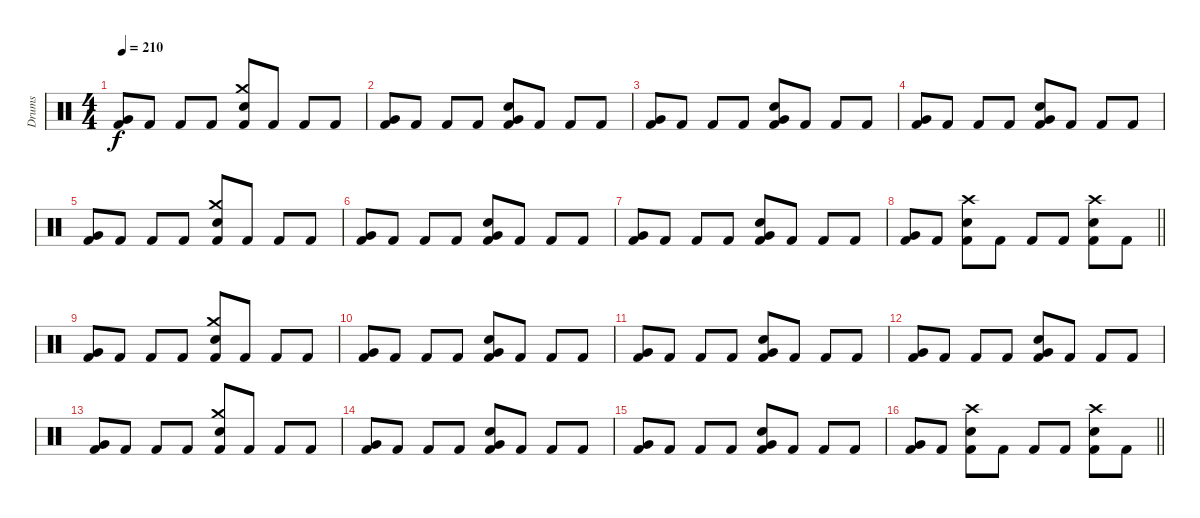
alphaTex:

\track ("Drums" "Drums") {instrument percussion}
\staff {score}
\articulation defaults
\ts (4 4)
\tempo 210
\clef neutral
\ks c
("Very Low Tom (hit)" "Kick (hit) 2").8{dy f} "Kick (hit) 2".8 "Kick (hit) 2".8 "Kick (hit) 2".8 ("Crash medium (hit)" "Snare (hit) 2" "Kick (hit) 2").8 "Kick (hit) 2".8 "Kick (hit) 2".8 "Kick (hit) 2".8 |
("Very Low Tom (hit)" "Kick (hit) 2").8 "Kick (hit) 2".8 "Kick (hit) 2".8 "Kick (hit) 2".8 ("Very Low Tom (hit)" "Snare (hit) 2" "Kick (hit) 2").8 "Kick (hit) 2".8 "Kick (hit) 2".8 "Kick (hit) 2".8 |
("Very Low Tom (hit)" "Kick (hit) 2").8 "Kick (hit) 2".8 "Kick (hit) 2".8 "Kick (hit) 2".8 ("Very Low Tom (hit)" "Snare (hit) 2" "Kick (hit) 2").8 "Kick (hit) 2".8 "Kick (hit) 2".8 "Kick (hit) 2".8 |
("Very Low Tom (hit)" "Kick (hit) 2").8 "Kick (hit) 2".8 "Kick (hit) 2".8 "Kick (hit) 2".8 ("Very Low Tom (hit)" "Snare (hit) 2" "Kick (hit) 2").8 "Kick (hit) 2".8 "Kick (hit) 2".8 "Kick (hit) 2".8 |
("Very Low Tom (hit)" "Kick (hit) 2").8 "Kick (hit) 2".8 "Kick (hit) 2".8 "Kick (hit) 2".8 ("Crash medium (hit)" "Snare (hit) 2" "Kick (hit) 2").8 "Kick (hit) 2".8 "Kick (hit) 2".8 "Kick (hit) 2".8 |
("Very Low Tom (hit)" "Kick (hit) 2").8 "Kick (hit) 2".8 "Kick (hit) 2".8 "Kick (hit) 2".8 ("Very Low Tom (hit)" "Snare (hit) 2" "Kick (hit) 2").8 "Kick (hit) 2".8 "Kick (hit) 2".8 "Kick (hit) 2".8 |
("Very Low Tom (hit)" "Kick (hit) 2").8 "Kick (hit) 2".8 "Kick (hit) 2".8 "Kick (hit) 2".8 ("Very Low Tom (hit)" "Snare (hit) 2" "Kick (hit) 2").8 "Kick (hit) 2".8 "Kick (hit) 2".8 "Kick (hit) 2".8 |
\barLineRight lightlight
("Very Low Tom (hit)" "Kick (hit) 2").8 "Kick (hit) 2".8 ("Crash high (hit)" "Snare (hit) 2" "Kick (hit) 2").8 "Kick (hit) 2".8 "Kick (hit) 2".8 "Kick (hit) 2".8 ("Crash high (hit)" "Snare (hit) 2" "Kick (hit) 2").8 "Kick (hit) 2".8 |
\section ("" "")
("Very Low Tom (hit)" "Kick (hit) 2").8 "Kick (hit) 2".8 "Kick (hit) 2".8 "Kick (hit) 2".8 ("Crash medium (hit)" "Snare (hit) 2" "Kick (hit) 2").8 "Kick (hit) 2".8 "Kick (hit) 2".8 "Kick (hit) 2".8 |
("Very Low Tom (hit)" "Kick (hit) 2").8 "Kick (hit) 2".8 "Kick (hit) 2".8 "Kick (hit) 2".8 ("Very Low Tom (hit)" "Snare (hit) 2" "Kick (hit) 2").8 "Kick (hit) 2".8 "Kick (hit) 2".8 "Kick (hit) 2".8 |
("Very Low Tom (hit)" "Kick (hit) 2").8 "Kick (hit) 2".8 "Kick (hit) 2".8 "Kick (hit) 2".8 ("Very Low Tom (hit)" "Snare (hit) 2" "Kick (hit) 2").8 "Kick (hit) 2".8 "Kick (hit) 2".8 "Kick (hit) 2".8 |
("Very Low Tom (hit)" "Kick (hit) 2").8 "Kick (hit) 2".8 "Kick (hit) 2".8 "Kick (hit) 2".8 ("Very Low Tom (hit)" "Snare (hit) 2" "Kick (hit) 2").8 "Kick (hit) 2".8 "Kick (hit) 2".8 "Kick (hit) 2".8 |
("Very Low Tom (hit)" "Kick (hit) 2").8 "Kick (hit) 2".8 "Kick (hit) 2".8 "Kick (hit) 2".8 ("Crash medium (hit)" "Snare (hit) 2" "Kick (hit) 2").8 "Kick (hit) 2".8 "Kick (hit) 2".8 "Kick (hit) 2".8 |
("Very Low Tom (hit)" "Kick (hit) 2").8 "Kick (hit) 2".8 "Kick (hit) 2".8 "Kick (hit) 2".8 ("Very Low Tom (hit)" "Snare (hit) 2" "Kick (hit) 2").8 "Kick (hit) 2".8 "Kick (hit) 2".8 "Kick (hit) 2".8 |
("Very Low Tom (hit)" "Kick (hit) 2").8 "Kick (hit) 2".8 "Kick (hit) 2".8 "Kick (hit) 2".8 ("Very Low Tom (hit)" "Snare (hit) 2" "Kick (hit) 2").8 "Kick (hit) 2".8 "Kick (hit) 2".8 "Kick (hit) 2".8 |
\barLineRight lightlight
("Very Low Tom (hit)" "Kick (hit) 2").8 "Kick (hit) 2".8 ("Crash high (hit)" "Snare (hit) 2" "Kick (hit) 2").8 "Kick (hit) 2".8 "Kick (hit) 2".8 "Kick (hit) 2".8 ("Crash high (hit)" "Snare (hit) 2" "Kick (hit) 2").8 "Kick (hit) 2".8
